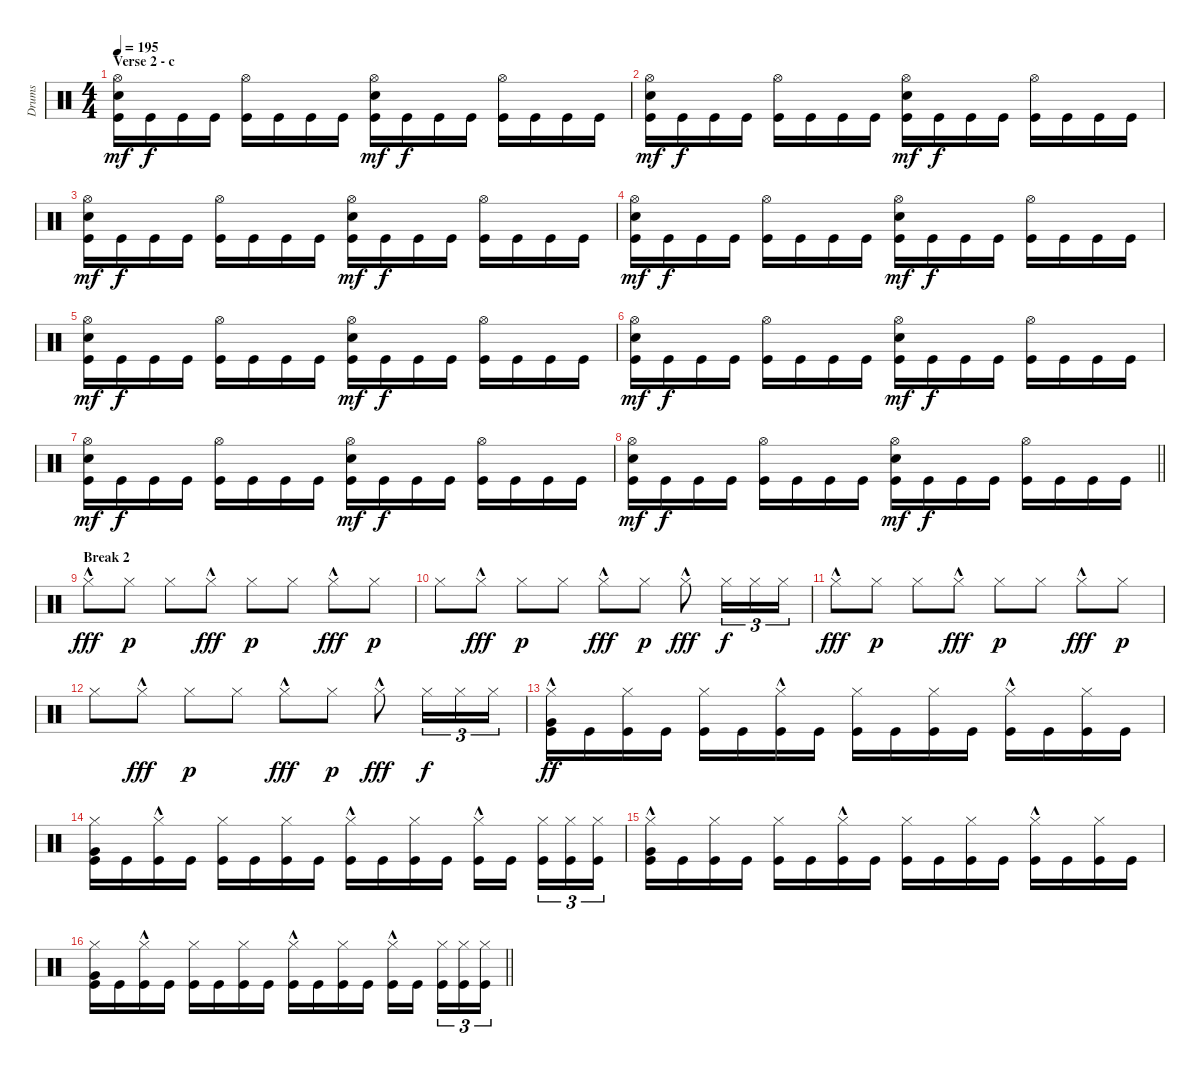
\track ("Drums" "Drums") {instrument percussion}
\staff {score}
\articulation defaults
\ts (4 4)
\section ("" "Verse 2 - c")
\tempo 195
\clef neutral
\ks c
("Hi-Hat (open)" "Snare (hit) 2" "Kick (hit)").16{dy mf} "Kick (hit)".16{dy f} "Kick (hit)".16 "Kick (hit)".16 ("Hi-Hat (open)" "Kick (hit)").16 "Kick (hit)".16 "Kick (hit)".16 "Kick (hit)".16 ("Hi-Hat (open)" "Snare (hit) 2" "Kick (hit)").16{dy mf} "Kick (hit)".16{dy f} "Kick (hit)".16 "Kick (hit)".16 ("Hi-Hat (open)" "Kick (hit)").16 "Kick (hit)".16 "Kick (hit)".16 "Kick (hit)".16 |
("Hi-Hat (open)" "Snare (hit) 2" "Kick (hit)").16{dy mf} "Kick (hit)".16{dy f} "Kick (hit)".16 "Kick (hit)".16 ("Hi-Hat (open)" "Kick (hit)").16 "Kick (hit)".16 "Kick (hit)".16 "Kick (hit)".16 ("Hi-Hat (open)" "Snare (hit) 2" "Kick (hit)").16{dy mf} "Kick (hit)".16{dy f} "Kick (hit)".16 "Kick (hit)".16 ("Hi-Hat (open)" "Kick (hit)").16 "Kick (hit)".16 "Kick (hit)".16 "Kick (hit)".16 |
("Hi-Hat (open)" "Snare (hit) 2" "Kick (hit)").16{dy mf} "Kick (hit)".16{dy f} "Kick (hit)".16 "Kick (hit)".16 ("Hi-Hat (open)" "Kick (hit)").16 "Kick (hit)".16 "Kick (hit)".16 "Kick (hit)".16 ("Hi-Hat (open)" "Snare (hit) 2" "Kick (hit)").16{dy mf} "Kick (hit)".16{dy f} "Kick (hit)".16 "Kick (hit)".16 ("Hi-Hat (open)" "Kick (hit)").16 "Kick (hit)".16 "Kick (hit)".16 "Kick (hit)".16 |
("Hi-Hat (open)" "Snare (hit) 2" "Kick (hit)").16{dy mf} "Kick (hit)".16{dy f} "Kick (hit)".16 "Kick (hit)".16 ("Hi-Hat (open)" "Kick (hit)").16 "Kick (hit)".16 "Kick (hit)".16 "Kick (hit)".16 ("Hi-Hat (open)" "Snare (hit) 2" "Kick (hit)").16{dy mf} "Kick (hit)".16{dy f} "Kick (hit)".16 "Kick (hit)".16 ("Hi-Hat (open)" "Kick (hit)").16 "Kick (hit)".16 "Kick (hit)".16 "Kick (hit)".16 |
("Hi-Hat (open)" "Snare (hit) 2" "Kick (hit)").16{dy mf} "Kick (hit)".16{dy f} "Kick (hit)".16 "Kick (hit)".16 ("Hi-Hat (open)" "Kick (hit)").16 "Kick (hit)".16 "Kick (hit)".16 "Kick (hit)".16 ("Hi-Hat (open)" "Snare (hit) 2" "Kick (hit)").16{dy mf} "Kick (hit)".16{dy f} "Kick (hit)".16 "Kick (hit)".16 ("Hi-Hat (open)" "Kick (hit)").16 "Kick (hit)".16 "Kick (hit)".16 "Kick (hit)".16 |
("Hi-Hat (open)" "Snare (hit) 2" "Kick (hit)").16{dy mf} "Kick (hit)".16{dy f} "Kick (hit)".16 "Kick (hit)".16 ("Hi-Hat (open)" "Kick (hit)").16 "Kick (hit)".16 "Kick (hit)".16 "Kick (hit)".16 ("Hi-Hat (open)" "Snare (hit) 2" "Kick (hit)").16{dy mf} "Kick (hit)".16{dy f} "Kick (hit)".16 "Kick (hit)".16 ("Hi-Hat (open)" "Kick (hit)").16 "Kick (hit)".16 "Kick (hit)".16 "Kick (hit)".16 |
("Hi-Hat (open)" "Snare (hit) 2" "Kick (hit)").16{dy mf} "Kick (hit)".16{dy f} "Kick (hit)".16 "Kick (hit)".16 ("Hi-Hat (open)" "Kick (hit)").16 "Kick (hit)".16 "Kick (hit)".16 "Kick (hit)".16 ("Hi-Hat (open)" "Snare (hit) 2" "Kick (hit)").16{dy mf} "Kick (hit)".16{dy f} "Kick (hit)".16 "Kick (hit)".16 ("Hi-Hat (open)" "Kick (hit)").16 "Kick (hit)".16 "Kick (hit)".16 "Kick (hit)".16 |
\barLineRight lightlight
("Hi-Hat (open)" "Snare (hit) 2" "Kick (hit)").16{dy mf} "Kick (hit)".16{dy f} "Kick (hit)".16 "Kick (hit)".16 ("Hi-Hat (open)" "Kick (hit)").16 "Kick (hit)".16 "Kick (hit)".16 "Kick (hit)".16 ("Hi-Hat (open)" "Snare (hit) 2" "Kick (hit)").16{dy mf} "Kick (hit)".16{dy f} "Kick (hit)".16 "Kick (hit)".16 ("Hi-Hat (open)" "Kick (hit)").16 "Kick (hit)".16 "Kick (hit)".16 "Kick (hit)".16 |
\section ("" "Break 2")
"Hi-Hat (closed)"{hac}.8{dy fff} "Hi-Hat (closed)".8{dy p} "Hi-Hat (closed)".8 "Hi-Hat (closed)"{hac}.8{dy fff} "Hi-Hat (closed)".8{dy p} "Hi-Hat (closed)".8 "Hi-Hat (closed)"{hac}.8{dy fff} "Hi-Hat (closed)".8{dy p} |
"Hi-Hat (closed)".8 "Hi-Hat (closed)"{hac}.8{dy fff} "Hi-Hat (closed)".8{dy p} "Hi-Hat (closed)".8 "Hi-Hat (closed)"{hac}.8{dy fff} "Hi-Hat (closed)".8{dy p} "Hi-Hat (closed)"{hac}.8{dy fff} "Hi-Hat (closed)".16{tu (3 2) dy f} "Hi-Hat (closed)".16{tu (3 2)} "Hi-Hat (closed)".16{tu (3 2)} |
"Hi-Hat (closed)"{hac}.8{dy fff} "Hi-Hat (closed)".8{dy p} "Hi-Hat (closed)".8 "Hi-Hat (closed)"{hac}.8{dy fff} "Hi-Hat (closed)".8{dy p} "Hi-Hat (closed)".8 "Hi-Hat (closed)"{hac}.8{dy fff} "Hi-Hat (closed)".8{dy p} |
"Hi-Hat (closed)".8 "Hi-Hat (closed)"{hac}.8{dy fff} "Hi-Hat (closed)".8{dy p} "Hi-Hat (closed)".8 "Hi-Hat (closed)"{hac}.8{dy fff} "Hi-Hat (closed)".8{dy p} "Hi-Hat (closed)"{hac}.8{dy fff} "Hi-Hat (closed)".16{tu (3 2) dy f} "Hi-Hat (closed)".16{tu (3 2)} "Hi-Hat (closed)".16{tu (3 2)} |
("Hi-Hat (closed)"{hac} "Very Low Tom (hit)" "Kick (hit)").16{dy ff} "Kick (hit)".16 ("Hi-Hat (closed)" "Kick (hit)").16 "Kick (hit)".16 ("Hi-Hat (closed)" "Kick (hit)").16 "Kick (hit)".16 ("Hi-Hat (closed)"{hac} "Kick (hit)").16 "Kick (hit)".16 ("Hi-Hat (closed)" "Kick (hit)").16 "Kick (hit)".16 ("Hi-Hat (closed)" "Kick (hit)").16 "Kick (hit)".16 ("Hi-Hat (closed)"{hac} "Kick (hit)").16 "Kick (hit)".16 ("Hi-Hat (closed)" "Kick (hit)").16 "Kick (hit)".16 |
("Hi-Hat (closed)" "Very Low Tom (hit)" "Kick (hit)").16 "Kick (hit)".16 ("Hi-Hat (closed)"{hac} "Kick (hit)").16 "Kick (hit)".16 ("Hi-Hat (closed)" "Kick (hit)").16 "Kick (hit)".16 ("Hi-Hat (closed)" "Kick (hit)").16 "Kick (hit)".16 ("Hi-Hat (closed)"{hac} "Kick (hit)").16 "Kick (hit)".16 ("Hi-Hat (closed)" "Kick (hit)").16 "Kick (hit)".16 ("Hi-Hat (closed)"{hac} "Kick (hit)").16 "Kick (hit)".16{beam splitsecondary} ("Hi-Hat (closed)" "Kick (hit)").16{tu (3 2)} ("Hi-Hat (closed)" "Kick (hit)").16{tu (3 2)} ("Hi-Hat (closed)" "Kick (hit)").16{tu (3 2)} |
("Hi-Hat (closed)"{hac} "Very Low Tom (hit)" "Kick (hit)").16 "Kick (hit)".16 ("Hi-Hat (closed)" "Kick (hit)").16 "Kick (hit)".16 ("Hi-Hat (closed)" "Kick (hit)").16 "Kick (hit)".16 ("Hi-Hat (closed)"{hac} "Kick (hit)").16 "Kick (hit)".16 ("Hi-Hat (closed)" "Kick (hit)").16 "Kick (hit)".16 ("Hi-Hat (closed)" "Kick (hit)").16 "Kick (hit)".16 ("Hi-Hat (closed)"{hac} "Kick (hit)").16 "Kick (hit)".16 ("Hi-Hat (closed)" "Kick (hit)").16 "Kick (hit)".16 |
\barLineRight lightlight
("Hi-Hat (closed)" "Very Low Tom (hit)" "Kick (hit)").16 "Kick (hit)".16 ("Hi-Hat (closed)"{hac} "Kick (hit)").16 "Kick (hit)".16 ("Hi-Hat (closed)" "Kick (hit)").16 "Kick (hit)".16 ("Hi-Hat (closed)" "Kick (hit)").16 "Kick (hit)".16 ("Hi-Hat (closed)"{hac} "Kick (hit)").16 "Kick (hit)".16 ("Hi-Hat (closed)" "Kick (hit)").16 "Kick (hit)".16 ("Hi-Hat (closed)"{hac} "Kick (hit)").16 "Kick (hit)".16{beam splitsecondary} ("Hi-Hat (closed)" "Kick (hit)").16{tu (3 2)} ("Hi-Hat (closed)" "Kick (hit)").16{tu (3 2)} ("Hi-Hat (closed)" "Kick (hit)").16{tu (3 2)}
